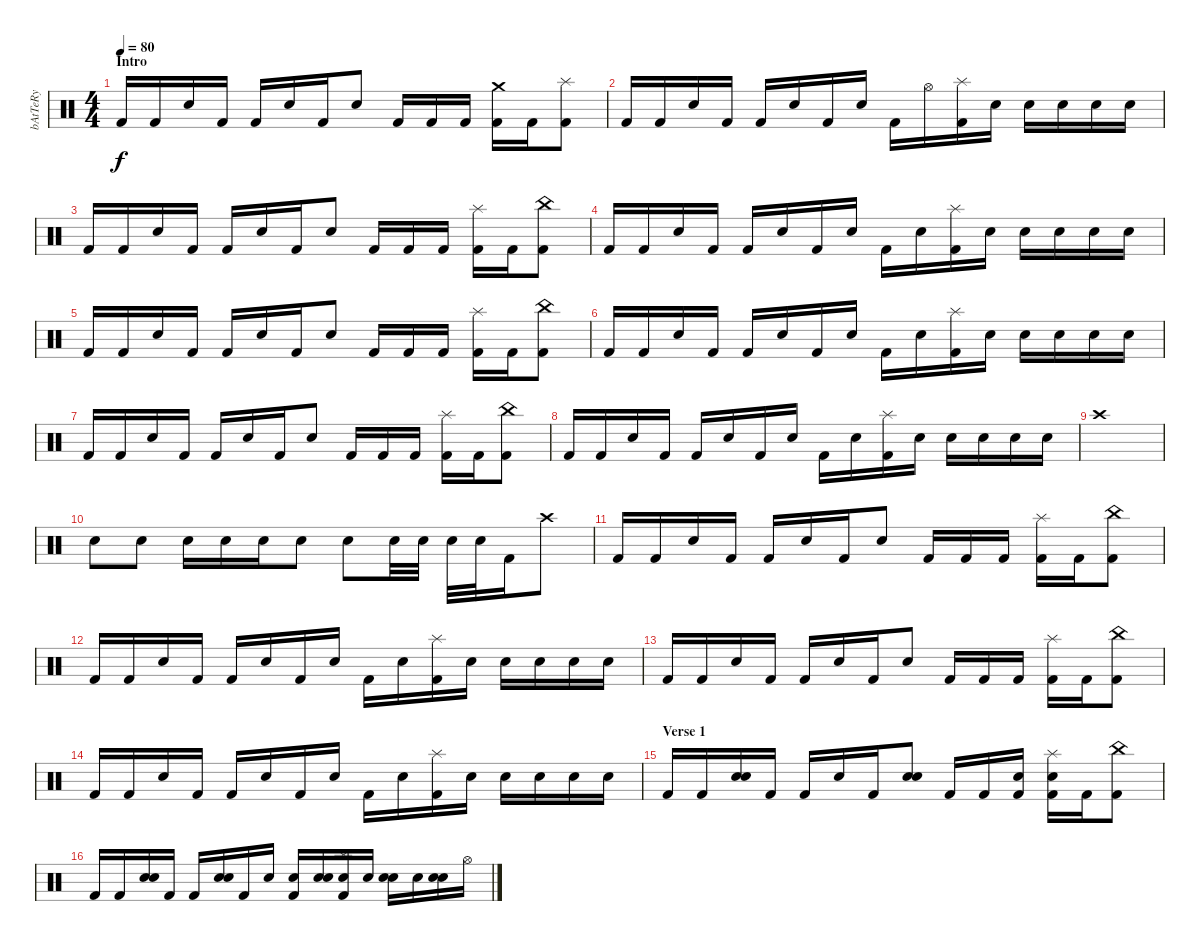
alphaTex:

\track ("bAtTeRy" "bAtTeRy") {instrument percussion}
\staff {score}
\articulation defaults
\ts (4 4)
\section ("" "Intro")
\tempo 80
\clef neutral
\ks c "Kick (hit) 2".16{dy f} "Kick (hit) 2".16 "Electric Snare (hit)".16 "Kick (hit) 2".16 "Kick (hit) 2".16 "Electric Snare (hit)".16 "Kick (hit) 2".16 "Electric Snare (hit)".8 "Kick (hit) 2".16 "Kick (hit) 2".16 "Kick (hit) 2".16
("Crash medium (hit)" "Kick (hit) 2").16 "Kick (hit) 2".16 ("Splash (hit)" "Kick (hit) 2").8 |
"Kick (hit) 2".16 "Kick (hit) 2".16 "Electric Snare (hit)".16 "Kick (hit) 2".16 "Kick (hit) 2".16 "Electric Snare (hit)".16 "Kick (hit) 2".16 "Electric Snare (hit)".16 "Kick (hit) 2".16 "Hi-Hat (open)".16 ("Splash (hit)" "Kick (hit) 2").16 "Electric Snare (hit)".16 "Electric Snare (hit)".16 "Electric Snare (hit)".16 "Electric Snare (hit)".16 "Electric Snare (hit)".16 |
"Kick (hit) 2".16 "Kick (hit) 2".16 "Electric Snare (hit)".16 "Kick (hit) 2".16 "Kick (hit) 2".16 "Electric Snare (hit)".16 "Kick (hit) 2".16 "Electric Snare (hit)".8 "Kick (hit) 2".16 "Kick (hit) 2".16 "Kick (hit) 2".16 ("Splash (hit)" "Kick (hit) 2").16 "Kick (hit) 2".16 ("China (hit)" "Kick (hit) 2").8 |
"Kick (hit) 2".16 "Kick (hit) 2".16 "Electric Snare (hit)".16 "Kick (hit) 2".16 "Kick (hit) 2".16 "Electric Snare (hit)".16 "Kick (hit) 2".16 "Electric Snare (hit)".16 "Kick (hit) 2".16 "Electric Snare (hit)".16 ("Splash (hit)" "Kick (hit) 2").16 "Electric Snare (hit)".16 "Electric Snare (hit)".16 "Electric Snare (hit)".16 "Electric Snare (hit)".16 "Electric Snare (hit)".16 |
"Kick (hit) 2".16 "Kick (hit) 2".16 "Electric Snare (hit)".16 "Kick (hit) 2".16 "Kick (hit) 2".16 "Electric Snare (hit)".16 "Kick (hit) 2".16 "Electric Snare (hit)".8 "Kick (hit) 2".16 "Kick (hit) 2".16 "Kick (hit) 2".16 ("Splash (hit)" "Kick (hit) 2").16 "Kick (hit) 2".16 ("China (hit)" "Kick (hit) 2").8 |
"Kick (hit) 2".16 "Kick (hit) 2".16 "Electric Snare (hit)".16 "Kick (hit) 2".16 "Kick (hit) 2".16 "Electric Snare (hit)".16 "Kick (hit) 2".16 "Electric Snare (hit)".16 "Kick (hit) 2".16 "Electric Snare (hit)".16 ("Splash (hit)" "Kick (hit) 2").16 "Electric Snare (hit)".16 "Electric Snare (hit)".16 "Electric Snare (hit)".16 "Electric Snare (hit)".16 "Electric Snare (hit)".16 |
"Kick (hit) 2".16 "Kick (hit) 2".16 "Electric Snare (hit)".16 "Kick (hit) 2".16 "Kick (hit) 2".16 "Electric Snare (hit)".16 "Kick (hit) 2".16 "Electric Snare (hit)".8 "Kick (hit) 2".16 "Kick (hit) 2".16 "Kick (hit) 2".16 ("Splash (hit)" "Kick (hit) 2").16 "Kick (hit) 2".16 ("China (hit)" "Kick (hit) 2").8 |
"Kick (hit) 2".16 "Kick (hit) 2".16 "Electric Snare (hit)".16 "Kick (hit) 2".16 "Kick (hit) 2".16 "Electric Snare (hit)".16 "Kick (hit) 2".16 "Electric Snare (hit)".16 "Kick (hit) 2".16 "Electric Snare (hit)".16 ("Splash (hit)" "Kick (hit) 2").16 "Electric Snare (hit)".16 "Electric Snare (hit)".16 "Electric Snare (hit)".16 "Electric Snare (hit)".16 "Electric Snare (hit)".16 |
"Crash high (hit)".1 |
"Electric Snare (hit)".8 "Electric Snare (hit)".8 "Electric Snare (hit)".16 "Electric Snare (hit)".16 "Electric Snare (hit)".16 "Electric Snare (hit)".8 "Electric Snare (hit)".8 "Electric Snare (hit)".32 "Electric Snare (hit)".32 "Electric Snare (hit)".32 "Electric Snare (hit)".32 "Kick (hit) 2".16 "Crash high (hit)".8 |
"Kick (hit) 2".16 "Kick (hit) 2".16 "Electric Snare (hit)".16 "Kick (hit) 2".16 "Kick (hit) 2".16 "Electric Snare (hit)".16 "Kick (hit) 2".16 "Electric Snare (hit)".8 "Kick (hit) 2".16 "Kick (hit) 2".16 "Kick (hit) 2".16 ("Splash (hit)" "Kick (hit) 2").16 "Kick (hit) 2".16 ("China (hit)" "Kick (hit) 2").8 |
"Kick (hit) 2".16 "Kick (hit) 2".16 "Electric Snare (hit)".16 "Kick (hit) 2".16 "Kick (hit) 2".16 "Electric Snare (hit)".16 "Kick (hit) 2".16 "Electric Snare (hit)".16 "Kick (hit) 2".16 "Electric Snare (hit)".16 ("Splash (hit)" "Kick (hit) 2").16 "Electric Snare (hit)".16 "Electric Snare (hit)".16 "Electric Snare (hit)".16 "Electric Snare (hit)".16 "Electric Snare (hit)".16 |
"Kick (hit) 2".16 "Kick (hit) 2".16 "Electric Snare (hit)".16 "Kick (hit) 2".16 "Kick (hit) 2".16 "Electric Snare (hit)".16 "Kick (hit) 2".16 "Electric Snare (hit)".8 "Kick (hit) 2".16 "Kick (hit) 2".16 "Kick (hit) 2".16 ("Splash (hit)" "Kick (hit) 2").16 "Kick (hit) 2".16 ("China (hit)" "Kick (hit) 2").8 |
"Kick (hit) 2".16 "Kick (hit) 2".16 "Electric Snare (hit)".16 "Kick (hit) 2".16 "Kick (hit) 2".16 "Electric Snare (hit)".16 "Kick (hit) 2".16 "Electric Snare (hit)".16 "Kick (hit) 2".16 "Electric Snare (hit)".16 ("Splash (hit)" "Kick (hit) 2").16 "Electric Snare (hit)".16 "Electric Snare (hit)".16 "Electric Snare (hit)".16 "Electric Snare (hit)".16 "Electric Snare (hit)".16 |
\section ("" "Verse 1")
"Kick (hit) 2".16 "Kick (hit) 2".16 ("Snare (hit) 2" "Electric Snare (hit)").16 "Kick (hit) 2".16 "Kick (hit) 2".16 "Electric Snare (hit)".16 "Kick (hit) 2".16 ("Snare (hit) 2" "Electric Snare (hit)").8 "Kick (hit) 2".16 "Kick (hit) 2".16 ("Snare (hit) 2" "Kick (hit) 2").16 ("Splash (hit)" "Snare (hit) 2" "Kick (hit) 2").16 "Kick (hit) 2".16 ("China (hit)" "Kick (hit) 2").8 |
"Kick (hit) 2".16 "Kick (hit) 2".16 ("Snare (hit) 2" "Electric Snare (hit)").16 "Kick (hit) 2".16 "Kick (hit) 2".16 ("Snare (hit) 2" "Electric Snare (hit)").16 "Kick (hit) 2".16 "Electric Snare (hit)".16 ("Snare (hit) 2" "Kick (hit) 2").16 ("Snare (hit) 2" "Electric Snare (hit)").16 ("Splash (hit)" "Snare (hit) 2" "Kick (hit) 2").16 "Electric Snare (hit)".16 ("Snare (hit) 2" "Electric Snare (hit)").16 "Electric Snare (hit)".16 ("Snare (hit) 2" "Electric Snare (hit)").16 "Hi-Hat (open)".16
